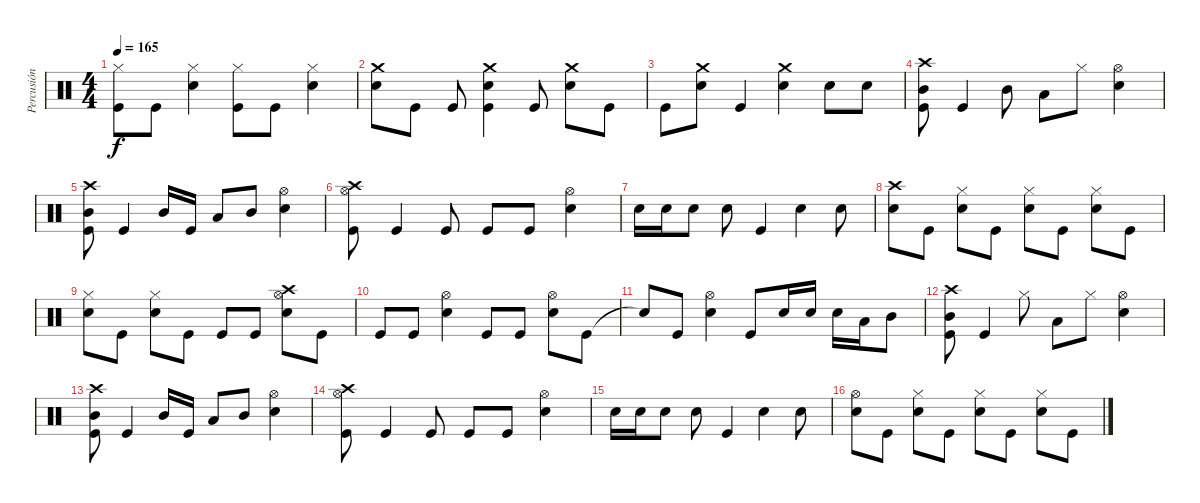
\track ("Percusión" "Percusión") {instrument percussion}
\staff {score}
\articulation defaults
\ts (4 4)
\tempo 165
\clef neutral
\ks c
("Hi-Hat (closed)" "Kick (hit)").8{dy f} "Kick (hit)".8 ("Electric Snare (hit)" "Hi-Hat (closed)").4 ("Kick (hit)" "Hi-Hat (closed)").8 "Kick (hit)".8 ("Electric Snare (hit)" "Hi-Hat (closed)").4 |
("Electric Snare (hit)" "Crash medium (hit)").8 "Kick (hit)".8 "Kick (hit)".8 ("Crash medium (hit)" "Kick (hit)" "Electric Snare (hit)").4 "Kick (hit)".8 ("Electric Snare (hit)" "Crash medium (hit)").8 "Kick (hit)".8 |
"Kick (hit)".8 ("Electric Snare (hit)" "Crash medium (hit)").8 "Kick (hit)".4 ("Electric Snare (hit)" "Crash medium (hit)").4 "Electric Snare (hit)".8 "Electric Snare (hit)".8 |
("Mid Tom (hit)" "Kick (hit)" "Crash high (hit)").8 "Kick (hit)".4 "Mid Tom (hit)".8 "Low Tom (hit)".8 "Hi-Hat (closed)".8 ("Hi-Hat (open)" "Electric Snare (hit)").4 |
("Mid Tom (hit)" "Crash high (hit)" "Kick (hit)").8 "Kick (hit)".4 "Mid Tom (hit)".16 "Kick (hit)".16 "Low Tom (hit)".8 "Mid Tom (hit)".8 ("Hi-Hat (open)" "Electric Snare (hit)").4 |
("Hi-Hat (open)" "Crash high (hit)" "Kick (hit)").8 "Kick (hit)".4 "Kick (hit)".8 "Kick (hit)".8 "Kick (hit)".8 ("Hi-Hat (open)" "Electric Snare (hit)").4 |
"Electric Snare (hit)".16 "Electric Snare (hit)".16 "Electric Snare (hit)".8 "Electric Snare (hit)".8 "Kick (hit)".4 "Electric Snare (hit)".4 "Electric Snare (hit)".8 |
("Electric Snare (hit)" "Crash high (hit)").8 "Kick (hit)".8 ("Hi-Hat (closed)" "Electric Snare (hit)").8 "Kick (hit)".8 ("Hi-Hat (closed)" "Electric Snare (hit)").8 "Kick (hit)".8 ("Hi-Hat (closed)" "Electric Snare (hit)").8 "Kick (hit)".8 |
("Hi-Hat (closed)" "Electric Snare (hit)").8 "Kick (hit)".8 ("Hi-Hat (closed)" "Electric Snare (hit)").8 "Kick (hit)".8 "Kick (hit)".8 "Kick (hit)".8 ("Crash high (hit)" "Hi-Hat (open)" "Electric Snare (hit)").8 "Kick (hit)".8 |
"Kick (hit)".8 "Kick (hit)".8 ("Hi-Hat (open)" "Electric Snare (hit)").4 "Kick (hit)".8 "Kick (hit)".8 ("Electric Snare (hit)" "Hi-Hat (open)").8 "Kick (hit)".8 |
"Snare (hit)"{t}.8 "Kick (hit)".8 ("Electric Snare (hit)" "Hi-Hat (open)").4 "Kick (hit)".8 "Electric Snare (hit)".16 "Electric Snare (hit)".16 "Electric Snare (hit)".16 "Low Tom (hit)".16 "Mid Tom (hit)".8 |
("Mid Tom (hit)" "Kick (hit)" "Crash high (hit)").8 "Kick (hit)".4 "Hi-Hat (closed)".8 "Low Tom (hit)".8 "Hi-Hat (closed)".8 ("Hi-Hat (open)" "Electric Snare (hit)").4 |
("Mid Tom (hit)" "Crash high (hit)" "Kick (hit)").8 "Kick (hit)".4 "Mid Tom (hit)".16 "Kick (hit)".16 "Low Tom (hit)".8 "Mid Tom (hit)".8 ("Hi-Hat (open)" "Electric Snare (hit)").4 |
("Hi-Hat (open)" "Crash high (hit)" "Kick (hit)").8 "Kick (hit)".4 "Kick (hit)".8 "Kick (hit)".8 "Kick (hit)".8 ("Hi-Hat (open)" "Electric Snare (hit)").4 |
"Electric Snare (hit)".16 "Electric Snare (hit)".16 "Electric Snare (hit)".8 "Electric Snare (hit)".8 "Kick (hit)".4 "Electric Snare (hit)".4 "Electric Snare (hit)".8 |
("Electric Snare (hit)" "Hi-Hat (open)").8 "Kick (hit)".8 ("Hi-Hat (closed)" "Electric Snare (hit)").8 "Kick (hit)".8 ("Hi-Hat (closed)" "Electric Snare (hit)").8 "Kick (hit)".8 ("Hi-Hat (closed)" "Electric Snare (hit)").8 "Kick (hit)".8
